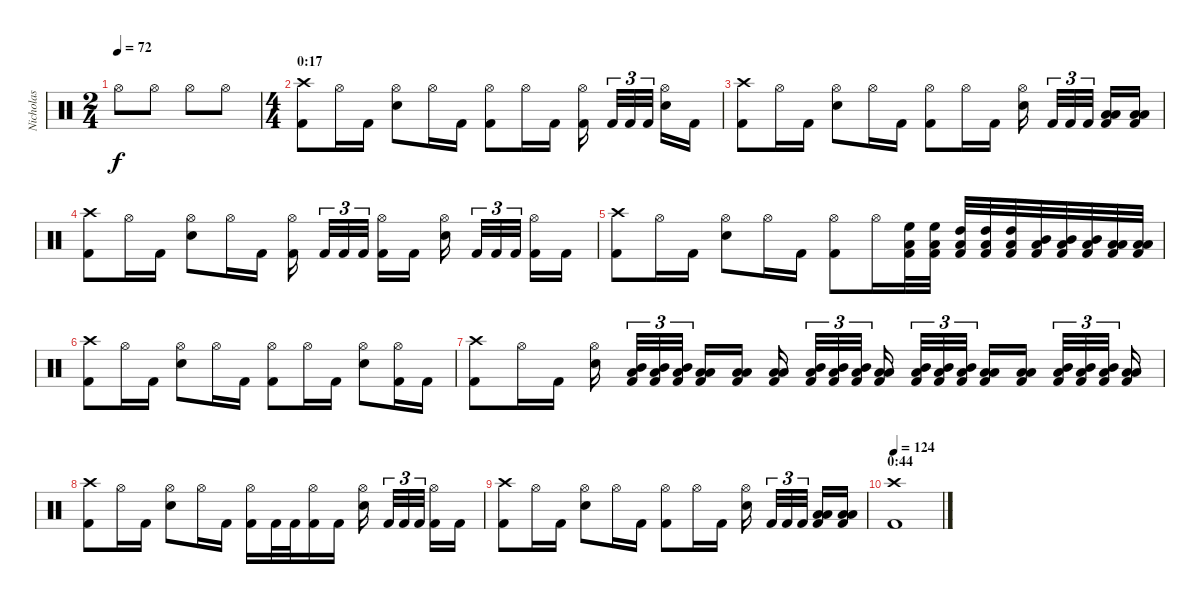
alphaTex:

\track ("Nicholas" "Nicholas") {instrument percussion}
\staff {score}
\articulation defaults
\ts (2 4)
\tempo 72
\clef neutral
\ks c "Hi-Hat (open)".8{dy f} "Hi-Hat (open)".8 "Hi-Hat (open)".8 "Hi-Hat (open)".8
|
\ts (4 4)
\section ("" "0:17")
("Kick (hit) 2" "Crash high (hit)").8 "Hi-Hat (open)".16 "Kick (hit) 2".16 ("Snare (hit) 2" "Hi-Hat (open)").8 "Hi-Hat (open)".16 "Kick (hit) 2".16 ("Kick (hit) 2" "Hi-Hat (open)").8 "Hi-Hat (open)".16 "Kick (hit) 2".16 ("Kick (hit) 2" "Hi-Hat (open)").16 "Kick (hit) 2".32{tu (3 2)} "Kick (hit) 2".32{tu (3 2)} "Kick (hit) 2".32{tu (3 2)} ("Snare (hit) 2" "Hi-Hat (open)").16 "Kick (hit) 2".16 |
("Kick (hit) 2" "Crash high (hit)").8 "Hi-Hat (open)".16 "Kick (hit) 2".16 ("Snare (hit) 2" "Hi-Hat (open)").8 "Hi-Hat (open)".16 "Kick (hit) 2".16 ("Kick (hit) 2" "Hi-Hat (open)").8 "Hi-Hat (open)".16 "Kick (hit) 2".16 ("Snare (hit) 2" "Hi-Hat (open)").16 "Kick (hit) 2".32{tu (3 2)} "Kick (hit) 2".32{tu (3 2)} "Kick (hit) 2".32{tu (3 2)} ("Kick (hit) 2" "Low Tom (hit)" "Low Tom (hit)").16 ("Kick (hit) 2" "Low Tom (hit)" "Low Tom (hit)").16 |
("Kick (hit) 2" "Crash high (hit)").8 "Hi-Hat (open)".16 "Kick (hit) 2".16 ("Snare (hit) 2" "Hi-Hat (open)").8 "Hi-Hat (open)".16 "Kick (hit) 2".16 ("Kick (hit) 2" "Hi-Hat (open)").16 "Kick (hit) 2".32{tu (3 2)} "Kick (hit) 2".32{tu (3 2)} "Kick (hit) 2".32{tu (3 2)} ("Kick (hit) 2" "Hi-Hat (open)").16 "Kick (hit) 2".16 ("Snare (hit) 2" "Hi-Hat (open)").16 "Kick (hit) 2".32{tu (3 2)} "Kick (hit) 2".32{tu (3 2)} "Kick (hit) 2".32{tu (3 2)} ("Kick (hit) 2" "Hi-Hat (open)").16 "Kick (hit) 2".16 |
("Kick (hit) 2" "Crash high (hit)").8 "Hi-Hat (open)".16 "Kick (hit) 2".16 ("Snare (hit) 2" "Hi-Hat (open)").8 "Hi-Hat (open)".16 "Kick (hit) 2".16 ("Kick (hit) 2" "Hi-Hat (open)").8 "Hi-Hat (open)".16 ("Kick (hit) 2" "Low Tom (hit)" "High Floor Tom (hit)").32 ("Kick (hit) 2" "Low Tom (hit)" "High Floor Tom (hit)").32 ("Kick (hit) 2" "Low Tom (hit)" "High Tom (hit)").32 ("Kick (hit) 2" "Low Tom (hit)" "High Tom (hit)").32 ("Kick (hit) 2" "Low Tom (hit)" "High Tom (hit)").32 ("Kick (hit) 2" "Low Tom (hit)" "Mid Tom (hit)").32 ("Kick (hit) 2" "Low Tom (hit)" "Mid Tom (hit)").32 ("Kick (hit) 2" "Low Tom (hit)" "Mid Tom (hit)").32 ("Kick (hit) 2" "Low Tom (hit)" "Low Tom (hit)").32 ("Kick (hit) 2" "Low Tom (hit)" "Low Tom (hit)").32 |
("Kick (hit) 2" "Crash high (hit)").8 "Hi-Hat (open)".16 "Kick (hit) 2".16 ("Snare (hit) 2" "Hi-Hat (open)").8 "Hi-Hat (open)".16 "Kick (hit) 2".16 ("Kick (hit) 2" "Hi-Hat (open)").8 "Hi-Hat (open)".16 "Kick (hit) 2".16 ("Snare (hit) 2" "Hi-Hat (open)").8 ("Kick (hit) 2" "Hi-Hat (open)").16 "Kick (hit) 2".16 |
("Kick (hit) 2" "Crash high (hit)").8 "Hi-Hat (open)".16 "Kick (hit) 2".16 ("Snare (hit) 2" "Hi-Hat (open)").16 ("Kick (hit) 2" "Low Tom (hit)" "Mid Tom (hit)").32{tu (3 2)} ("Kick (hit) 2" "Low Tom (hit)" "Mid Tom (hit)").32{tu (3 2)} ("Kick (hit) 2" "Low Tom (hit)" "Mid Tom (hit)").32{tu (3 2)} ("Kick (hit) 2" "Low Tom (hit)" "Low Tom (hit)").16 ("Kick (hit) 2" "Low Tom (hit)" "Low Tom (hit)").16 ("Kick (hit) 2" "Low Tom (hit)" "Low Tom (hit)").16 ("Kick (hit) 2" "Low Tom (hit)" "Mid Tom (hit)").32{tu (3 2)} ("Kick (hit) 2" "Low Tom (hit)" "Mid Tom (hit)").32{tu (3 2)} ("Kick (hit) 2" "Low Tom (hit)" "Mid Tom (hit)").32{tu (3 2)} ("Kick (hit) 2" "Low Tom (hit)" "Low Tom (hit)").16 ("Kick (hit) 2" "Low Tom (hit)" "Mid Tom (hit)").32{tu (3 2)} ("Kick (hit) 2" "Low Tom (hit)" "Mid Tom (hit)").32{tu (3 2)} ("Kick (hit) 2" "Low Tom (hit)" "Mid Tom (hit)").32{tu (3 2)} ("Kick (hit) 2" "Low Tom (hit)" "Low Tom (hit)").16 ("Kick (hit) 2" "Low Tom (hit)" "Low Tom (hit)").16 ("Kick (hit) 2" "Low Tom (hit)" "Mid Tom (hit)").32{tu (3 2)} ("Kick (hit) 2" "Low Tom (hit)" "Mid Tom (hit)").32{tu (3 2)} ("Kick (hit) 2" "Low Tom (hit)" "Mid Tom (hit)").32{tu (3 2)} ("Kick (hit) 2" "Low Tom (hit)" "Low Tom (hit)").16 |
("Kick (hit) 2" "Crash high (hit)").8 "Hi-Hat (open)".16 "Kick (hit) 2".16 ("Snare (hit) 2" "Hi-Hat (open)").8 "Hi-Hat (open)".16 "Kick (hit) 2".16 ("Kick (hit) 2" "Hi-Hat (open)").16 "Kick (hit) 2".32 "Kick (hit) 2".32 ("Kick (hit) 2" "Hi-Hat (open)").16 "Kick (hit) 2".16 ("Snare (hit) 2" "Hi-Hat (open)").16 "Kick (hit) 2".32{tu (3 2)} "Kick (hit) 2".32{tu (3 2)} "Kick (hit) 2".32{tu (3 2)} ("Kick (hit) 2" "Hi-Hat (open)").16 "Kick (hit) 2".16 |
("Kick (hit) 2" "Crash high (hit)").8 "Hi-Hat (open)".16 "Kick (hit) 2".16 ("Snare (hit) 2" "Hi-Hat (open)").8 "Hi-Hat (open)".16 "Kick (hit) 2".16 ("Kick (hit) 2" "Hi-Hat (open)").8 "Hi-Hat (open)".16 "Kick (hit) 2".16 ("Snare (hit) 2" "Hi-Hat (open)").16 "Kick (hit) 2".32{tu (3 2)} "Kick (hit) 2".32{tu (3 2)} "Kick (hit) 2".32{tu (3 2)} ("Kick (hit) 2" "Low Tom (hit)" "Low Tom (hit)").16 ("Kick (hit) 2" "Low Tom (hit)" "Low Tom (hit)").16 |
\section ("" "0:44")
\tempo 124
("Kick (hit) 2" "Crash high (hit)").1
